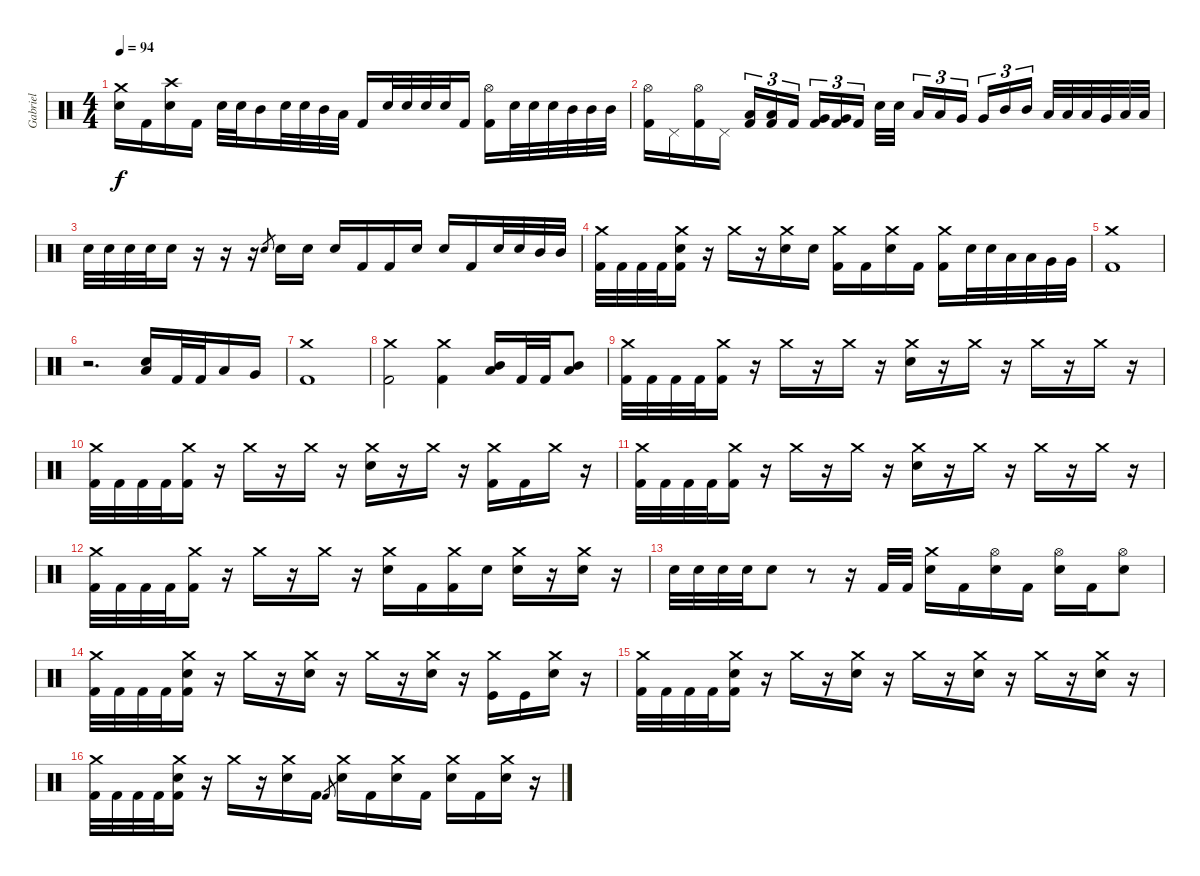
\track ("Gabriel" "Gabriel") {instrument percussion}
\staff {score}
\articulation defaults
\ts (4 4)
\tempo 94
\clef neutral
\ks c
("Crash medium (hit)" "Electric Snare (hit)").16{dy f} "Kick (hit) 2".16 ("Crash high (hit)" "Electric Snare (hit)").16 "Kick (hit) 2".16 "Electric Snare (hit)".32 "Electric Snare (hit)".32 "Mid Tom (hit)".16 "Electric Snare (hit)".32 "Electric Snare (hit)".32 "Mid Tom (hit)".32 "Low Tom (hit)".32 "Kick (hit) 2".16 "Electric Snare (hit)".32 "Electric Snare (hit)".32 "Electric Snare (hit)".32 "Electric Snare (hit)".32 "Kick (hit) 2".16 ("Hi-Hat (open)" "Kick (hit) 2").16 "Electric Snare (hit)".32 "Electric Snare (hit)".32 "Electric Snare (hit)".32 "Mid Tom (hit)".32 "Mid Tom (hit)".32 "Mid Tom (hit)".32 |
("Hi-Hat (open)" "Kick (hit) 2").16 "Pedal Hi-Hat (hit)".16 ("Hi-Hat (open)" "Kick (hit) 2").16 "Pedal Hi-Hat (hit)".16 ("Low Tom (hit)" "Kick (hit) 2").16{tu (3 2)} ("Low Tom (hit)" "Kick (hit) 2").16{tu (3 2)} "Kick (hit) 2".16{tu (3 2) beam splitsecondary} ("Very Low Tom (hit)" "Kick (hit) 2").16{tu (3 2)} ("Very Low Tom (hit)" "Kick (hit) 2").16{tu (3 2)} "Kick (hit) 2".16{tu (3 2)} "Electric Snare (hit)".32 "Electric Snare (hit)".32{beam splitsecondary} "Low Tom (hit)".16{tu (3 2)} "Low Tom (hit)".16{tu (3 2)} "Very Low Tom (hit)".16{tu (3 2) beam splitsecondary} "Very Low Tom (hit)".16{tu (3 2)} "Mid Tom (hit)".16{tu (3 2)} "Mid Tom (hit)".16{tu (3 2) beam splitsecondary} "Low Tom (hit)".32 "Low Tom (hit)".32 "Low Tom (hit)".32 "Very Low Tom (hit)".32 "Low Floor Tom (hit)".32 "Low Floor Tom (hit)".32 |
"Electric Snare (hit)".32 "Electric Snare (hit)".32 "Electric Snare (hit)".32 "Electric Snare (hit)".32 "Electric Snare (hit)".16 r.16 r.16 r.16 "Electric Snare (hit)".8{gr} "Electric Snare (hit)".16 "Electric Snare (hit)".16 "Electric Snare (hit)".16 "Kick (hit) 2".16 "Kick (hit) 2".16 "Electric Snare (hit)".16 "Electric Snare (hit)".16 "Kick (hit) 2".16 "Electric Snare (hit)".32 "Electric Snare (hit)".32 "Mid Tom (hit)".32 "Mid Tom (hit)".32 |
("Crash medium (hit)" "Kick (hit) 2").32 "Kick (hit) 2".32 "Kick (hit) 2".32 "Kick (hit) 2".32 ("Crash medium (hit)" "Electric Snare (hit)" "Kick (hit) 2").16 r.16 "Crash medium (hit)".16 r.16 ("Crash medium (hit)" "Electric Snare (hit)").16 "Electric Snare (hit)".16 ("Crash medium (hit)" "Kick (hit) 2").16 "Kick (hit) 2".16 ("Crash medium (hit)" "Electric Snare (hit)").16 "Kick (hit) 2".16 ("Crash medium (hit)" "Kick (hit) 2").16 "Electric Snare (hit)".32 "Electric Snare (hit)".32 "Low Tom (hit)".32 "Low Tom (hit)".32 "Very Low Tom (hit)".32 "Very Low Tom (hit)".32 |
("Crash medium (hit)" "Kick (hit) 2").1 |
r.2{d} ("Low Tom (hit)" "Electric Snare (hit)").16 "Kick (hit) 2".32 "Kick (hit) 2".32 "Low Tom (hit)".16 "Very Low Tom (hit)".16 |
("Crash medium (hit)" "Kick (hit) 2").1 |
("Crash medium (hit)" "Kick (hit) 2").2 ("Crash medium (hit)" "Kick (hit) 2").4 ("Low Tom (hit)" "Mid Tom (hit)").16 "Kick (hit) 2".32 "Kick (hit) 2".32 ("Low Tom (hit)" "Mid Tom (hit)").8 |
("Crash medium (hit)" "Kick (hit) 2").32 "Kick (hit) 2".32 "Kick (hit) 2".32 "Kick (hit) 2".32 ("Crash medium (hit)" "Kick (hit) 2").16 r.16 "Crash medium (hit)".16 r.16 "Crash medium (hit)".16 r.16 ("Crash medium (hit)" "Electric Snare (hit)").16 r.16 "Crash medium (hit)".16 r.16 "Crash medium (hit)".16 r.16 "Crash medium (hit)".16 r.16 |
("Crash medium (hit)" "Kick (hit) 2").32 "Kick (hit) 2".32 "Kick (hit) 2".32 "Kick (hit) 2".32 ("Crash medium (hit)" "Kick (hit) 2").16 r.16 "Crash medium (hit)".16 r.16 "Crash medium (hit)".16 r.16 ("Crash medium (hit)" "Electric Snare (hit)").16 r.16 "Crash medium (hit)".16 r.16 ("Crash medium (hit)" "Kick (hit) 2").16 "Kick (hit) 2".16 "Crash medium (hit)".16 r.16 |
("Crash medium (hit)" "Kick (hit) 2").32 "Kick (hit) 2".32 "Kick (hit) 2".32 "Kick (hit) 2".32 ("Crash medium (hit)" "Kick (hit) 2").16 r.16 "Crash medium (hit)".16 r.16 "Crash medium (hit)".16 r.16 ("Crash medium (hit)" "Electric Snare (hit)").16 r.16 "Crash medium (hit)".16 r.16 "Crash medium (hit)".16 r.16 "Crash medium (hit)".16 r.16 |
("Crash medium (hit)" "Kick (hit) 2").32 "Kick (hit) 2".32 "Kick (hit) 2".32 "Kick (hit) 2".32 ("Crash medium (hit)" "Kick (hit) 2").16 r.16 "Crash medium (hit)".16 r.16 "Crash medium (hit)".16 r.16 ("Crash medium (hit)" "Electric Snare (hit)").16 "Kick (hit) 2".16 ("Crash medium (hit)" "Kick (hit) 2").16 "Electric Snare (hit)".16 ("Crash medium (hit)" "Electric Snare (hit)").16 r.16 ("Crash medium (hit)" "Electric Snare (hit)").16 r.16 |
"Electric Snare (hit)".32 "Electric Snare (hit)".32 "Electric Snare (hit)".32 "Electric Snare (hit)".32 "Electric Snare (hit)".8 r.8 r.16 "Kick (hit) 2".32 "Kick (hit) 2".32 ("Crash medium (hit)" "Electric Snare (hit)").16 "Kick (hit) 2".16 ("Hi-Hat (open)" "Electric Snare (hit)").16 "Kick (hit) 2".16 ("Hi-Hat (open)" "Electric Snare (hit)").16 "Kick (hit) 2".16 ("Hi-Hat (open)" "Electric Snare (hit)").8 |
("Crash medium (hit)" "Kick (hit) 2").32 "Kick (hit) 2".32 "Kick (hit) 2".32 "Kick (hit) 2".32 ("Crash medium (hit)" "Electric Snare (hit)" "Kick (hit) 2").16 r.16 "Crash medium (hit)".16 r.16 ("Crash medium (hit)" "Electric Snare (hit)").16 r.16 "Crash medium (hit)".16 r.16 ("Crash medium (hit)" "Electric Snare (hit)").16 r.16 ("Crash medium (hit)" "Kick (hit)").16 "Kick (hit)".16 ("Crash medium (hit)" "Electric Snare (hit)").16 r.16 |
("Crash medium (hit)" "Kick (hit) 2").32 "Kick (hit) 2".32 "Kick (hit) 2".32 "Kick (hit) 2".32 ("Crash medium (hit)" "Electric Snare (hit)" "Kick (hit) 2").16 r.16 "Crash medium (hit)".16 r.16 ("Crash medium (hit)" "Electric Snare (hit)").16 r.16 "Crash medium (hit)".16 r.16 ("Crash medium (hit)" "Electric Snare (hit)").16 r.16 "Crash medium (hit)".16 r.16 ("Crash medium (hit)" "Electric Snare (hit)").16 r.16 |
("Crash medium (hit)" "Kick (hit) 2").32 "Kick (hit) 2".32 "Kick (hit) 2".32 "Kick (hit) 2".32 ("Crash medium (hit)" "Electric Snare (hit)" "Kick (hit) 2").16 r.16 "Crash medium (hit)".16 r.16 ("Crash medium (hit)" "Electric Snare (hit)").16 "Kick (hit) 2".16 "Kick (hit) 2".8{gr} ("Crash medium (hit)" "Electric Snare (hit)").16 "Kick (hit) 2".16 ("Crash medium (hit)" "Electric Snare (hit)").16 "Kick (hit) 2".16 ("Crash medium (hit)" "Electric Snare (hit)").16 "Kick (hit) 2".16 ("Crash medium (hit)" "Electric Snare (hit)").16 r.16
